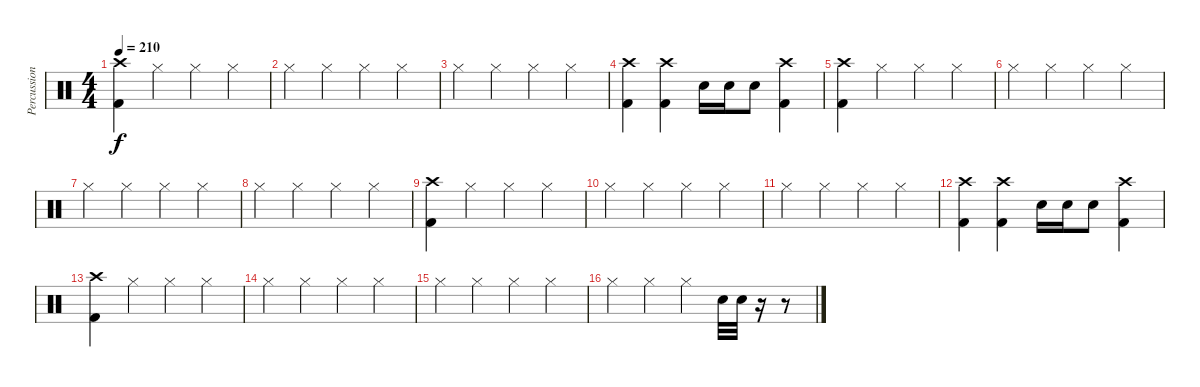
\track ("Percussion" "Percussion") {instrument percussion}
\staff {score}
\articulation defaults
\ts (4 4)
\tempo 210
\clef neutral
\ks c
("Crash high (hit)" "Kick (hit) 2").4{dy f} "Hi-Hat (closed)".4 "Hi-Hat (closed)".4 "Hi-Hat (closed)".4 |
"Hi-Hat (closed)".4 "Hi-Hat (closed)".4 "Hi-Hat (closed)".4 "Hi-Hat (closed)".4 |
"Hi-Hat (closed)".4 "Hi-Hat (closed)".4 "Hi-Hat (closed)".4 "Hi-Hat (closed)".4 |
("Crash high (hit)" "Kick (hit) 2").4 ("Crash high (hit)" "Kick (hit) 2").4 "Electric Snare (hit)".16 "Electric Snare (hit)".16 "Electric Snare (hit)".8 ("Crash high (hit)" "Kick (hit) 2").4 |
("Crash high (hit)" "Kick (hit) 2").4 "Hi-Hat (closed)".4 "Hi-Hat (closed)".4 "Hi-Hat (closed)".4 |
"Hi-Hat (closed)".4 "Hi-Hat (closed)".4 "Hi-Hat (closed)".4 "Hi-Hat (closed)".4 |
"Hi-Hat (closed)".4 "Hi-Hat (closed)".4 "Hi-Hat (closed)".4 "Hi-Hat (closed)".4 |
"Hi-Hat (closed)".4 "Hi-Hat (closed)".4 "Hi-Hat (closed)".4 "Hi-Hat (closed)".4 |
("Crash high (hit)" "Kick (hit) 2").4 "Hi-Hat (closed)".4 "Hi-Hat (closed)".4 "Hi-Hat (closed)".4 |
"Hi-Hat (closed)".4 "Hi-Hat (closed)".4 "Hi-Hat (closed)".4 "Hi-Hat (closed)".4 |
"Hi-Hat (closed)".4 "Hi-Hat (closed)".4 "Hi-Hat (closed)".4 "Hi-Hat (closed)".4 |
("Crash high (hit)" "Kick (hit) 2").4 ("Crash high (hit)" "Kick (hit) 2").4 "Electric Snare (hit)".16 "Electric Snare (hit)".16 "Electric Snare (hit)".8 ("Crash high (hit)" "Kick (hit) 2").4 |
("Crash high (hit)" "Kick (hit) 2").4 "Hi-Hat (closed)".4 "Hi-Hat (closed)".4 "Hi-Hat (closed)".4 |
"Hi-Hat (closed)".4 "Hi-Hat (closed)".4 "Hi-Hat (closed)".4 "Hi-Hat (closed)".4 |
"Hi-Hat (closed)".4 "Hi-Hat (closed)".4 "Hi-Hat (closed)".4 "Hi-Hat (closed)".4 |
"Hi-Hat (closed)".4 "Hi-Hat (closed)".4 "Hi-Hat (closed)".4 "Electric Snare (hit)".32 "Electric Snare (hit)".32 r.16 r.8
